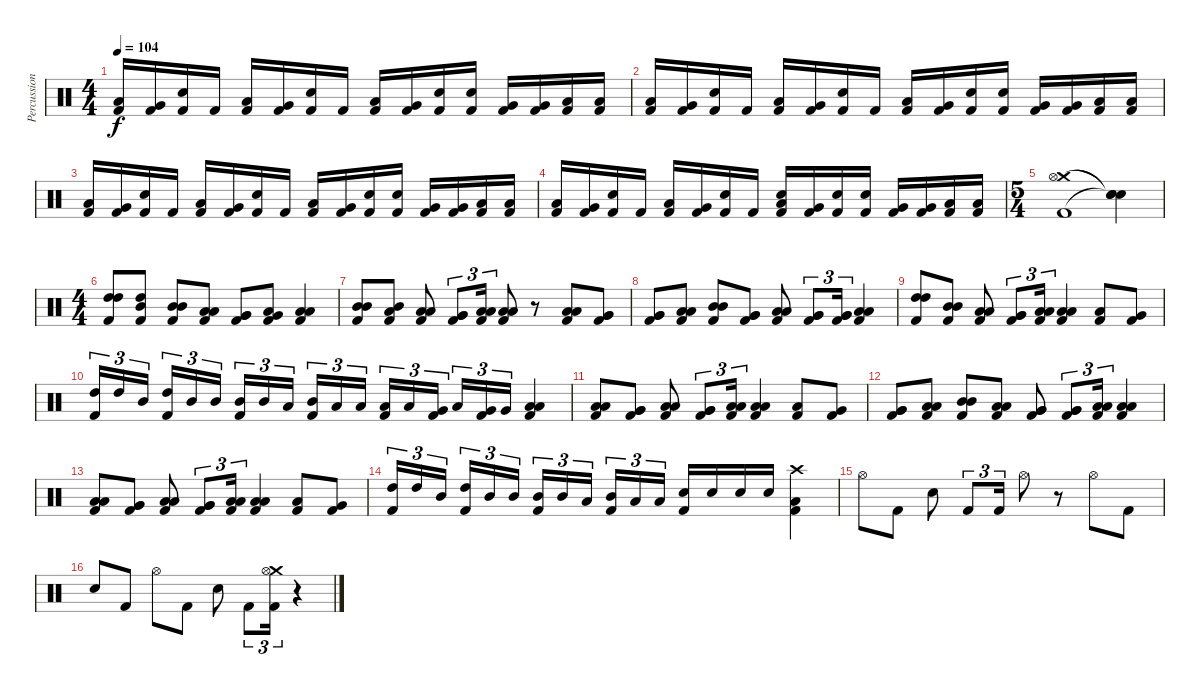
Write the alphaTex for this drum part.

\track ("Percussion" "Percussion") {instrument percussion}
\staff {score}
\articulation defaults
\ts (4 4)
\tempo 104
\clef neutral
\ks c
("Low Tom (hit)" "Kick (hit) 2").16{dy f} ("Very Low Tom (hit)" "Kick (hit) 2").16 ("Snare (hit) 2" "Kick (hit) 2").16 "Kick (hit) 2".16 ("Low Tom (hit)" "Kick (hit) 2").16 ("Very Low Tom (hit)" "Kick (hit) 2").16 ("Snare (hit) 2" "Kick (hit) 2").16 "Kick (hit) 2".16 ("Low Tom (hit)" "Kick (hit) 2").16 ("Very Low Tom (hit)" "Kick (hit) 2").16 ("Snare (hit) 2" "Kick (hit) 2").16 ("Snare (hit) 2" "Kick (hit) 2").16 ("Very Low Tom (hit)" "Kick (hit) 2").16 ("Very Low Tom (hit)" "Kick (hit) 2").16 ("Low Floor Tom (hit)" "Kick (hit) 2").16 ("Low Floor Tom (hit)" "Kick (hit) 2").16 |
("Low Tom (hit)" "Kick (hit) 2").16 ("Very Low Tom (hit)" "Kick (hit) 2").16 ("Snare (hit) 2" "Kick (hit) 2").16 "Kick (hit) 2".16 ("Low Tom (hit)" "Kick (hit) 2").16 ("Very Low Tom (hit)" "Kick (hit) 2").16 ("Snare (hit) 2" "Kick (hit) 2").16 "Kick (hit) 2".16 ("Low Tom (hit)" "Kick (hit) 2").16 ("Very Low Tom (hit)" "Kick (hit) 2").16 ("Snare (hit) 2" "Kick (hit) 2").16 ("Snare (hit) 2" "Kick (hit) 2").16 ("Very Low Tom (hit)" "Kick (hit) 2").16 ("Very Low Tom (hit)" "Kick (hit) 2").16 ("Low Floor Tom (hit)" "Kick (hit) 2").16 ("Low Floor Tom (hit)" "Kick (hit) 2").16 |
("Low Tom (hit)" "Kick (hit) 2").16 ("Very Low Tom (hit)" "Kick (hit) 2").16 ("Snare (hit) 2" "Kick (hit) 2").16 "Kick (hit) 2".16 ("Low Tom (hit)" "Kick (hit) 2").16 ("Very Low Tom (hit)" "Kick (hit) 2").16 ("Snare (hit) 2" "Kick (hit) 2").16 "Kick (hit) 2".16 ("Low Tom (hit)" "Kick (hit) 2").16 ("Very Low Tom (hit)" "Kick (hit) 2").16 ("Snare (hit) 2" "Kick (hit) 2").16 ("Snare (hit) 2" "Kick (hit) 2").16 ("Very Low Tom (hit)" "Kick (hit) 2").16 ("Very Low Tom (hit)" "Kick (hit) 2").16 ("Low Floor Tom (hit)" "Kick (hit) 2").16 ("Low Floor Tom (hit)" "Kick (hit) 2").16 |
("Low Tom (hit)" "Kick (hit) 2").16 ("Very Low Tom (hit)" "Kick (hit) 2").16 ("Snare (hit) 2" "Kick (hit) 2").16 "Kick (hit) 2".16 ("Low Tom (hit)" "Kick (hit) 2").16 ("Very Low Tom (hit)" "Kick (hit) 2").16 ("Snare (hit) 2" "Kick (hit) 2").16 "Kick (hit) 2".16 ("Low Tom (hit)" "Snare (hit) 2" "Kick (hit) 2").16 ("Very Low Tom (hit)" "Kick (hit) 2").16 ("Snare (hit) 2" "Kick (hit) 2").16 ("Snare (hit) 2" "Kick (hit) 2").16 ("Very Low Tom (hit)" "Kick (hit) 2").16 ("Very Low Tom (hit)" "Kick (hit) 2").16 ("Low Floor Tom (hit)" "Kick (hit) 2").16 ("Low Floor Tom (hit)" "Kick (hit) 2").16 |
\ts (5 4)
("Crash medium (hit)" "Hi-Hat (open)" "Kick (hit) 2").1 ("Snare (hit)"{t} "Snare (hit)"{t} "Snare (hit)"{t}).4 |
\ts (4 4)
("High Tom (hit)" "High Tom (hit)" "Kick (hit) 2").8 ("High Tom (hit)" "Mid Tom (hit)" "Kick (hit) 2").8 ("Mid Tom (hit)" "Mid Tom (hit)" "Kick (hit) 2").8 ("Low Tom (hit)" "Low Tom (hit)" "Kick (hit) 2").8 ("Very Low Tom (hit)" "Very Low Tom (hit)" "Kick (hit) 2").8 ("Very Low Tom (hit)" "Low Floor Tom (hit)" "Kick (hit) 2").8 ("Low Floor Tom (hit)" "Low Floor Tom (hit)" "Kick (hit) 2").4 |
("Mid Tom (hit)" "Mid Tom (hit)" "Kick (hit) 2").8 ("Low Tom (hit)" "Mid Tom (hit)" "Kick (hit) 2").8 ("Low Tom (hit)" "Low Tom (hit)" "Kick (hit) 2").8 ("Very Low Tom (hit)" "Very Low Tom (hit)" "Kick (hit) 2").8{tu (3 2)} ("Low Floor Tom (hit)" "Low Floor Tom (hit)" "Kick (hit) 2").16{tu (3 2)} ("Low Floor Tom (hit)" "Low Floor Tom (hit)" "Kick (hit) 2").8 r.8 ("Low Tom (hit)" "Low Tom (hit)" "Kick (hit) 2").8 ("Very Low Tom (hit)" "Very Low Tom (hit)" "Kick (hit) 2").8 |
("Very Low Tom (hit)" "Very Low Tom (hit)" "Kick (hit) 2").8 ("Low Tom (hit)" "Low Tom (hit)" "Kick (hit) 2").8 ("Mid Tom (hit)" "Mid Tom (hit)" "Kick (hit) 2").8 ("Very Low Tom (hit)" "Very Low Tom (hit)" "Kick (hit) 2").8 ("Low Floor Tom (hit)" "Low Floor Tom (hit)" "Kick (hit) 2").8 ("Very Low Tom (hit)" "Very Low Tom (hit)" "Kick (hit) 2").8{tu (3 2)} ("Very Low Tom (hit)" "Very Low Tom (hit)" "Kick (hit) 2").16{tu (3 2)} ("Low Floor Tom (hit)" "Low Floor Tom (hit)" "Kick (hit) 2").4 |
("High Tom (hit)" "High Tom (hit)" "Kick (hit) 2").8 ("Mid Tom (hit)" "Mid Tom (hit)" "Kick (hit) 2").8 ("Low Tom (hit)" "Low Tom (hit)" "Kick (hit) 2").8 ("Very Low Tom (hit)" "Very Low Tom (hit)" "Kick (hit) 2").8{tu (3 2)} ("Low Floor Tom (hit)" "Low Floor Tom (hit)" "Kick (hit) 2").16{tu (3 2)} ("Low Floor Tom (hit)" "Low Floor Tom (hit)" "Kick (hit) 2").4 ("Low Tom (hit)" "Kick (hit) 2").8 ("Very Low Tom (hit)" "Kick (hit) 2").8 |
("High Tom (hit)" "Kick (hit) 2").16{tu (3 2)} "High Tom (hit)".16{tu (3 2)} "Mid Tom (hit)".16{tu (3 2)} ("High Tom (hit)" "Kick (hit) 2").16{tu (3 2)} "Mid Tom (hit)".16{tu (3 2)} "Mid Tom (hit)".16{tu (3 2)} ("Mid Tom (hit)" "Kick (hit) 2").16{tu (3 2)} "Mid Tom (hit)".16{tu (3 2)} "Low Tom (hit)".16{tu (3 2)} ("Mid Tom (hit)" "Kick (hit) 2").16{tu (3 2)} "Low Tom (hit)".16{tu (3 2)} "Low Tom (hit)".16{tu (3 2)} ("Low Tom (hit)" "Kick (hit) 2").16{tu (3 2)} "Low Tom (hit)".16{tu (3 2)} ("Very Low Tom (hit)" "Kick (hit) 2").16{tu (3 2)} "Low Tom (hit)".16{tu (3 2)} ("Very Low Tom (hit)" "Kick (hit) 2").16{tu (3 2)} "Very Low Tom (hit)".16{tu (3 2)} ("Low Floor Tom (hit)" "Low Floor Tom (hit)" "Kick (hit) 2").4 |
("Low Tom (hit)" "Low Tom (hit)" "Kick (hit) 2").8 ("Very Low Tom (hit)" "Very Low Tom (hit)" "Kick (hit) 2").8 ("Low Tom (hit)" "Low Tom (hit)" "Kick (hit) 2").8 ("Very Low Tom (hit)" "Very Low Tom (hit)" "Kick (hit) 2").8{tu (3 2)} ("Low Tom (hit)" "Low Tom (hit)" "Kick (hit) 2").16{tu (3 2)} ("Low Tom (hit)" "Low Tom (hit)" "Kick (hit) 2").4 ("Low Tom (hit)" "Kick (hit) 2").8 ("Very Low Tom (hit)" "Kick (hit) 2").8 |
("Very Low Tom (hit)" "Very Low Tom (hit)" "Kick (hit) 2").8 ("Low Tom (hit)" "Low Tom (hit)" "Kick (hit) 2").8 ("Mid Tom (hit)" "Mid Tom (hit)" "Kick (hit) 2").8 ("Low Tom (hit)" "Low Tom (hit)" "Kick (hit) 2").8 ("Very Low Tom (hit)" "Very Low Tom (hit)" "Kick (hit) 2").8 ("Very Low Tom (hit)" "Very Low Tom (hit)" "Kick (hit) 2").8{tu (3 2)} ("Low Tom (hit)" "Low Tom (hit)" "Kick (hit) 2").16{tu (3 2)} ("Low Tom (hit)" "Low Tom (hit)" "Kick (hit) 2").4 |
("Low Tom (hit)" "Low Tom (hit)" "Kick (hit) 2").8 ("Very Low Tom (hit)" "Very Low Tom (hit)" "Kick (hit) 2").8 ("Low Tom (hit)" "Low Tom (hit)" "Kick (hit) 2").8 ("Very Low Tom (hit)" "Very Low Tom (hit)" "Kick (hit) 2").8{tu (3 2)} ("Low Tom (hit)" "Low Tom (hit)" "Kick (hit) 2").16{tu (3 2)} ("Low Tom (hit)" "Low Tom (hit)" "Kick (hit) 2").4 ("Low Tom (hit)" "Kick (hit) 2").8 ("Very Low Tom (hit)" "Kick (hit) 2").8 |
("High Tom (hit)" "Kick (hit) 2").16{tu (3 2)} "High Tom (hit)".16{tu (3 2)} "Mid Tom (hit)".16{tu (3 2)} ("High Tom (hit)" "Kick (hit) 2").16{tu (3 2)} "Mid Tom (hit)".16{tu (3 2)} "Mid Tom (hit)".16{tu (3 2)} ("Mid Tom (hit)" "Kick (hit) 2").16{tu (3 2)} "Mid Tom (hit)".16{tu (3 2)} "Low Tom (hit)".16{tu (3 2)} ("Mid Tom (hit)" "Kick (hit) 2").16{tu (3 2)} "Low Tom (hit)".16{tu (3 2)} "Low Tom (hit)".16{tu (3 2)} ("Snare (hit) 2" "Kick (hit) 2").16 "Snare (hit) 2".16 "Snare (hit) 2".16 "Snare (hit) 2".16 ("Crash high (hit)" "Low Floor Tom (hit)" "Kick (hit) 2").4 |
"Hi-Hat (open)".8 "Kick (hit) 2".8 "Snare (hit) 2".8 "Kick (hit) 2".8{tu (3 2)} "Kick (hit) 2".16{tu (3 2)} "Hi-Hat (open)".8 r.8 "Hi-Hat (open)".8 "Kick (hit) 2".8 |
"Snare (hit) 2".8 "Kick (hit) 2".8 "Hi-Hat (open)".8 "Kick (hit) 2".8 "Snare (hit) 2".8 "Kick (hit) 2".8{tu (3 2)} ("Crash medium (hit)" "Hi-Hat (open)" "Kick (hit) 2").16{tu (3 2)} r.4
